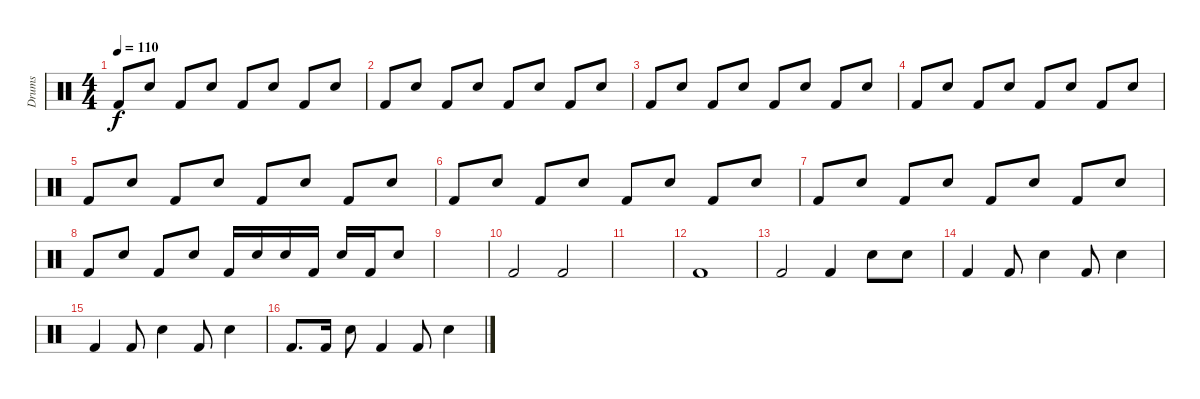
\track ("Drums" "Drums") {instrument percussion}
\staff {score}
\articulation defaults
\ts (4 4)
\tempo 110
\clef neutral
\ks c "Kick (hit) 2".8{dy f} "Snare (hit) 2".8 "Kick (hit) 2".8 "Snare (hit) 2".8 "Kick (hit) 2".8 "Snare (hit) 2".8 "Kick (hit) 2".8 "Snare (hit) 2".8
|
"Kick (hit) 2".8 "Snare (hit) 2".8 "Kick (hit) 2".8 "Snare (hit) 2".8 "Kick (hit) 2".8 "Snare (hit) 2".8 "Kick (hit) 2".8 "Snare (hit) 2".8 |
"Kick (hit) 2".8 "Snare (hit) 2".8 "Kick (hit) 2".8 "Snare (hit) 2".8 "Kick (hit) 2".8 "Snare (hit) 2".8 "Kick (hit) 2".8 "Snare (hit) 2".8 |
"Kick (hit) 2".8 "Snare (hit) 2".8 "Kick (hit) 2".8 "Snare (hit) 2".8 "Kick (hit) 2".8 "Snare (hit) 2".8 "Kick (hit) 2".8 "Snare (hit) 2".8 |
"Kick (hit) 2".8 "Snare (hit) 2".8 "Kick (hit) 2".8 "Snare (hit) 2".8 "Kick (hit) 2".8 "Snare (hit) 2".8 "Kick (hit) 2".8 "Snare (hit) 2".8 |
"Kick (hit) 2".8 "Snare (hit) 2".8 "Kick (hit) 2".8 "Snare (hit) 2".8 "Kick (hit) 2".8 "Snare (hit) 2".8 "Kick (hit) 2".8 "Snare (hit) 2".8 |
"Kick (hit) 2".8 "Snare (hit) 2".8 "Kick (hit) 2".8 "Snare (hit) 2".8 "Kick (hit) 2".8 "Snare (hit) 2".8 "Kick (hit) 2".8 "Snare (hit) 2".8 |
"Kick (hit) 2".8 "Snare (hit) 2".8 "Kick (hit) 2".8 "Snare (hit) 2".8 "Kick (hit) 2".16 "Snare (hit) 2".16 "Snare (hit) 2".16 "Kick (hit) 2".16 "Snare (hit) 2".16 "Kick (hit) 2".16 "Snare (hit) 2".8 |
|
"Kick (hit) 2".2 "Kick (hit) 2".2 |
|
"Kick (hit) 2".1 |
"Kick (hit) 2".2 "Kick (hit) 2".4 "Snare (hit) 2".8 "Snare (hit) 2".8 |
"Kick (hit) 2".4 "Kick (hit) 2".8 "Snare (hit) 2".4 "Kick (hit) 2".8 "Snare (hit) 2".4 |
"Kick (hit) 2".4 "Kick (hit) 2".8 "Snare (hit) 2".4 "Kick (hit) 2".8 "Snare (hit) 2".4 |
"Kick (hit) 2".8{d} "Kick (hit) 2".16 "Snare (hit) 2".8 "Kick (hit) 2".4 "Kick (hit) 2".8 "Snare (hit) 2".4
